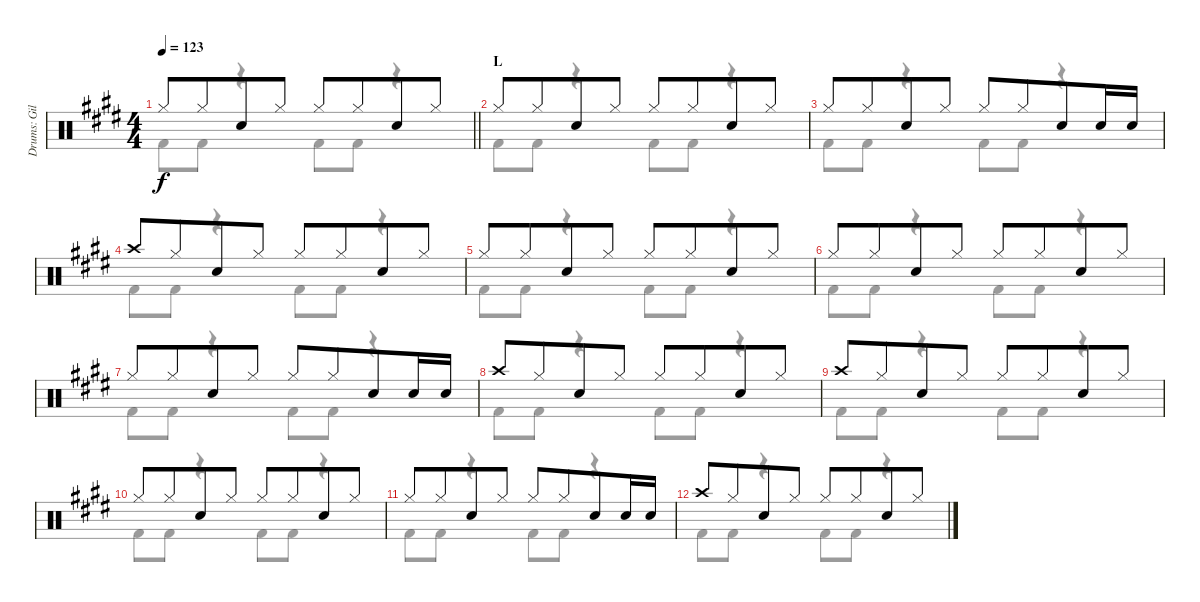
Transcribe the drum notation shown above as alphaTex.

\track ("Drums: Gil" "Drums: Gil") {instrument percussion}
\staff {score}
\articulation defaults
\voice
\ts (4 4)
\tempo 123
\clef neutral
\barLineRight lightlight
\ks e "Hi-Hat (closed)".8{dy f} "Hi-Hat (closed)".8{beam merge} "Snare (hit) 2".8 "Hi-Hat (closed)".8 "Hi-Hat (closed)".8 "Hi-Hat (closed)".8{beam merge} "Snare (hit) 2".8 "Hi-Hat (closed)".8
|
\section ("" "L")
"Hi-Hat (closed)".8 "Hi-Hat (closed)".8{beam merge} "Snare (hit) 2".8 "Hi-Hat (closed)".8 "Hi-Hat (closed)".8 "Hi-Hat (closed)".8{beam merge} "Snare (hit) 2".8 "Hi-Hat (closed)".8 |
"Hi-Hat (closed)".8 "Hi-Hat (closed)".8{beam merge} "Snare (hit) 2".8 "Hi-Hat (closed)".8 "Hi-Hat (closed)".8 "Hi-Hat (closed)".8{beam merge} "Snare (hit) 2".8 "Snare (hit) 2".16 "Snare (hit) 2".16 |
"Crash high (hit)".8 "Hi-Hat (closed)".8{beam merge} "Snare (hit) 2".8 "Hi-Hat (closed)".8 "Hi-Hat (closed)".8 "Hi-Hat (closed)".8{beam merge} "Snare (hit) 2".8 "Hi-Hat (closed)".8 |
"Hi-Hat (closed)".8{volume 8} "Hi-Hat (closed)".8{beam merge} "Snare (hit) 2".8 "Hi-Hat (closed)".8 "Hi-Hat (closed)".8 "Hi-Hat (closed)".8{beam merge} "Snare (hit) 2".8 "Hi-Hat (closed)".8 |
"Hi-Hat (closed)".8 "Hi-Hat (closed)".8{beam merge} "Snare (hit) 2".8 "Hi-Hat (closed)".8 "Hi-Hat (closed)".8 "Hi-Hat (closed)".8{beam merge} "Snare (hit) 2".8 "Hi-Hat (closed)".8 |
"Hi-Hat (closed)".8 "Hi-Hat (closed)".8{beam merge} "Snare (hit) 2".8 "Hi-Hat (closed)".8 "Hi-Hat (closed)".8 "Hi-Hat (closed)".8{beam merge} "Snare (hit) 2".8 "Snare (hit) 2".16 "Snare (hit) 2".16 |
"Crash high (hit)".8 "Hi-Hat (closed)".8{beam merge} "Snare (hit) 2".8 "Hi-Hat (closed)".8 "Hi-Hat (closed)".8 "Hi-Hat (closed)".8{beam merge} "Snare (hit) 2".8 "Hi-Hat (closed)".8 |
"Crash high (hit)".8{volume 0} "Hi-Hat (closed)".8{beam merge} "Snare (hit) 2".8 "Hi-Hat (closed)".8 "Hi-Hat (closed)".8 "Hi-Hat (closed)".8{beam merge} "Snare (hit) 2".8 "Hi-Hat (closed)".8 |
"Hi-Hat (closed)".8 "Hi-Hat (closed)".8{beam merge} "Snare (hit) 2".8 "Hi-Hat (closed)".8 "Hi-Hat (closed)".8 "Hi-Hat (closed)".8{beam merge} "Snare (hit) 2".8 "Hi-Hat (closed)".8 |
"Hi-Hat (closed)".8 "Hi-Hat (closed)".8{beam merge} "Snare (hit) 2".8 "Hi-Hat (closed)".8 "Hi-Hat (closed)".8 "Hi-Hat (closed)".8{beam merge} "Snare (hit) 2".8 "Snare (hit) 2".16 "Snare (hit) 2".16 |
"Crash high (hit)".8 "Hi-Hat (closed)".8{beam merge} "Snare (hit) 2".8 "Hi-Hat (closed)".8 "Hi-Hat (closed)".8 "Hi-Hat (closed)".8{beam merge} "Snare (hit) 2".8 "Hi-Hat (closed)".8
\voice
\clef neutral
\ottava regular
\simile none
\barLineRight lightlight
\ks e "Kick (hit) 2".8{dy f} "Kick (hit) 2".8
r.4 "Kick (hit) 2".8 "Kick (hit) 2".8 r.4 |
"Kick (hit) 2".8 "Kick (hit) 2".8 r.4 "Kick (hit) 2".8 "Kick (hit) 2".8 r.4 |
"Kick (hit) 2".8 "Kick (hit) 2".8 r.4 "Kick (hit) 2".8 "Kick (hit) 2".8 r.4 |
"Kick (hit) 2".8 "Kick (hit) 2".8 r.4 "Kick (hit) 2".8 "Kick (hit) 2".8 r.4 |
"Kick (hit) 2".8 "Kick (hit) 2".8 r.4 "Kick (hit) 2".8 "Kick (hit) 2".8 r.4 |
"Kick (hit) 2".8 "Kick (hit) 2".8 r.4 "Kick (hit) 2".8 "Kick (hit) 2".8 r.4 |
"Kick (hit) 2".8 "Kick (hit) 2".8 r.4 "Kick (hit) 2".8 "Kick (hit) 2".8 r.4 |
"Kick (hit) 2".8 "Kick (hit) 2".8 r.4 "Kick (hit) 2".8 "Kick (hit) 2".8 r.4 |
"Kick (hit) 2".8 "Kick (hit) 2".8 r.4 "Kick (hit) 2".8 "Kick (hit) 2".8 r.4 |
"Kick (hit) 2".8 "Kick (hit) 2".8 r.4 "Kick (hit) 2".8 "Kick (hit) 2".8 r.4 |
"Kick (hit) 2".8 "Kick (hit) 2".8 r.4 "Kick (hit) 2".8 "Kick (hit) 2".8 r.4 |
"Kick (hit) 2".8 "Kick (hit) 2".8 r.4 "Kick (hit) 2".8 "Kick (hit) 2".8 r.4
